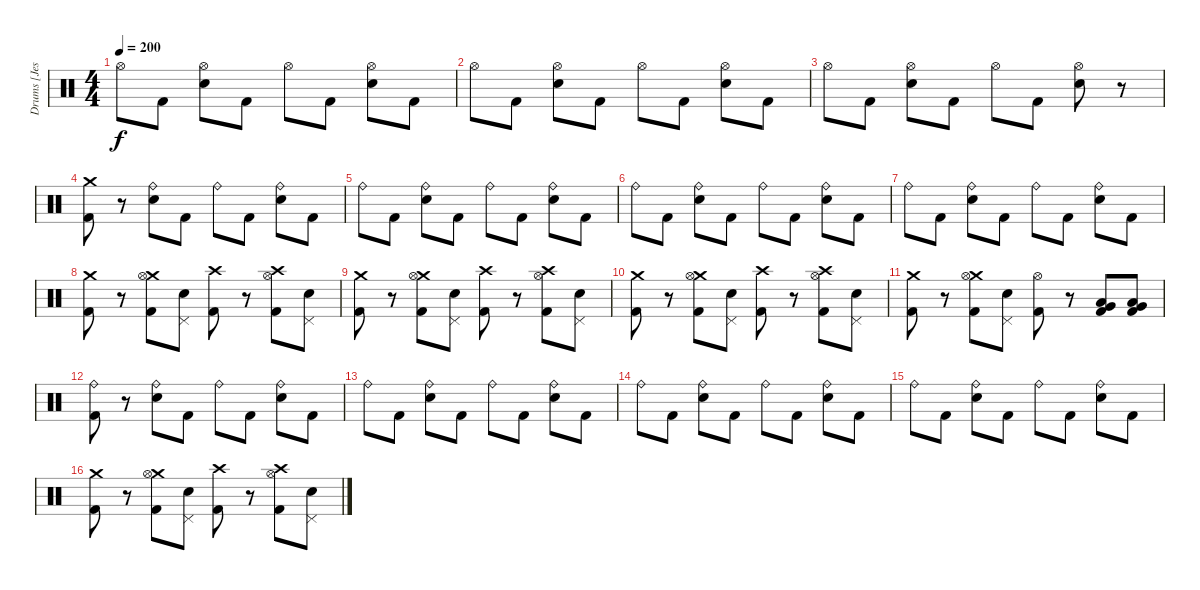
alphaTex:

\track ("Drums [Jesse Ingelevics]" "Drums [Jes") {instrument percussion}
\staff {score}
\articulation defaults
\ts (4 4)
\tempo 200
\clef neutral
\ks c "Hi-Hat (open)".8{dy f} "Kick (hit) 2".8
("Hi-Hat (open)" "Electric Snare (hit)").8 "Kick (hit) 2".8 "Hi-Hat (open)".8 "Kick (hit) 2".8 ("Hi-Hat (open)" "Electric Snare (hit)").8 "Kick (hit) 2".8 |
"Hi-Hat (open)".8 "Kick (hit) 2".8 ("Hi-Hat (open)" "Electric Snare (hit)").8 "Kick (hit) 2".8 "Hi-Hat (open)".8 "Kick (hit) 2".8 ("Hi-Hat (open)" "Electric Snare (hit)").8 "Kick (hit) 2".8 |
"Hi-Hat (open)".8 "Kick (hit) 2".8 ("Hi-Hat (open)" "Electric Snare (hit)").8 "Kick (hit) 2".8 "Hi-Hat (open)".8 "Kick (hit) 2".8 ("Hi-Hat (open)" "Electric Snare (hit)").8 r.8 |
("Crash medium (hit)" "Kick (hit) 2").8 r.8 ("Ride (bell)" "Electric Snare (hit)").8 "Kick (hit) 2".8 "Ride (bell)".8 "Kick (hit) 2".8 ("Ride (bell)" "Electric Snare (hit)").8 "Kick (hit) 2".8 |
"Ride (bell)".8 "Kick (hit) 2".8 ("Ride (bell)" "Electric Snare (hit)").8 "Kick (hit) 2".8 "Ride (bell)".8 "Kick (hit) 2".8 ("Ride (bell)" "Electric Snare (hit)").8 "Kick (hit) 2".8 |
"Ride (bell)".8 "Kick (hit) 2".8 ("Ride (bell)" "Electric Snare (hit)").8 "Kick (hit) 2".8 "Ride (bell)".8 "Kick (hit) 2".8 ("Ride (bell)" "Electric Snare (hit)").8 "Kick (hit) 2".8 |
"Ride (bell)".8 "Kick (hit) 2".8 ("Ride (bell)" "Electric Snare (hit)").8 "Kick (hit) 2".8 "Ride (bell)".8 "Kick (hit) 2".8 ("Ride (bell)" "Electric Snare (hit)").8 "Kick (hit) 2".8 |
("Crash medium (hit)" "Kick (hit) 2").8 r.8 ("Crash medium (hit)" "Hi-Hat (open)" "Kick (hit) 2").8 ("Pedal Hi-Hat (hit)" "Electric Snare (hit)").8 ("Crash high (hit)" "Kick (hit) 2").8 r.8 ("Crash high (hit)" "Hi-Hat (open)" "Kick (hit) 2").8 ("Pedal Hi-Hat (hit)" "Electric Snare (hit)").8 |
("Crash medium (hit)" "Kick (hit) 2").8 r.8 ("Crash medium (hit)" "Hi-Hat (open)" "Kick (hit) 2").8 ("Pedal Hi-Hat (hit)" "Electric Snare (hit)").8 ("Crash high (hit)" "Kick (hit) 2").8 r.8 ("Crash high (hit)" "Hi-Hat (open)" "Kick (hit) 2").8 ("Pedal Hi-Hat (hit)" "Electric Snare (hit)").8 |
("Crash medium (hit)" "Kick (hit) 2").8 r.8 ("Crash medium (hit)" "Hi-Hat (open)" "Kick (hit) 2").8 ("Pedal Hi-Hat (hit)" "Electric Snare (hit)").8 ("Crash high (hit)" "Kick (hit) 2").8 r.8 ("Crash high (hit)" "Hi-Hat (open)" "Kick (hit) 2").8 ("Pedal Hi-Hat (hit)" "Electric Snare (hit)").8 |
("Crash medium (hit)" "Kick (hit) 2").8 r.8 ("Crash medium (hit)" "Hi-Hat (open)" "Kick (hit) 2").8 ("Pedal Hi-Hat (hit)" "Electric Snare (hit)").8 ("Hi-Hat (open)" "Kick (hit) 2").8 r.8 ("Low Floor Tom (hit)" "Very Low Tom (hit)" "Kick (hit) 2").8 ("Very Low Tom (hit)" "Low Floor Tom (hit)" "Kick (hit) 2").8 |
("Ride (bell)" "Kick (hit) 2").8 r.8 ("Ride (bell)" "Electric Snare (hit)").8 "Kick (hit) 2".8 "Ride (bell)".8 "Kick (hit) 2".8 ("Ride (bell)" "Electric Snare (hit)").8 "Kick (hit) 2".8 |
"Ride (bell)".8 "Kick (hit) 2".8 ("Ride (bell)" "Electric Snare (hit)").8 "Kick (hit) 2".8 "Ride (bell)".8 "Kick (hit) 2".8 ("Ride (bell)" "Electric Snare (hit)").8 "Kick (hit) 2".8 |
"Ride (bell)".8 "Kick (hit) 2".8 ("Ride (bell)" "Electric Snare (hit)").8 "Kick (hit) 2".8 "Ride (bell)".8 "Kick (hit) 2".8 ("Ride (bell)" "Electric Snare (hit)").8 "Kick (hit) 2".8 |
"Ride (bell)".8 "Kick (hit) 2".8 ("Ride (bell)" "Electric Snare (hit)").8 "Kick (hit) 2".8 "Ride (bell)".8 "Kick (hit) 2".8 ("Ride (bell)" "Electric Snare (hit)").8 "Kick (hit) 2".8 |
("Crash medium (hit)" "Kick (hit) 2").8 r.8 ("Crash medium (hit)" "Hi-Hat (open)" "Kick (hit) 2").8 ("Pedal Hi-Hat (hit)" "Electric Snare (hit)").8 ("Crash high (hit)" "Kick (hit) 2").8 r.8 ("Crash high (hit)" "Hi-Hat (open)" "Kick (hit) 2").8 ("Pedal Hi-Hat (hit)" "Electric Snare (hit)").8
